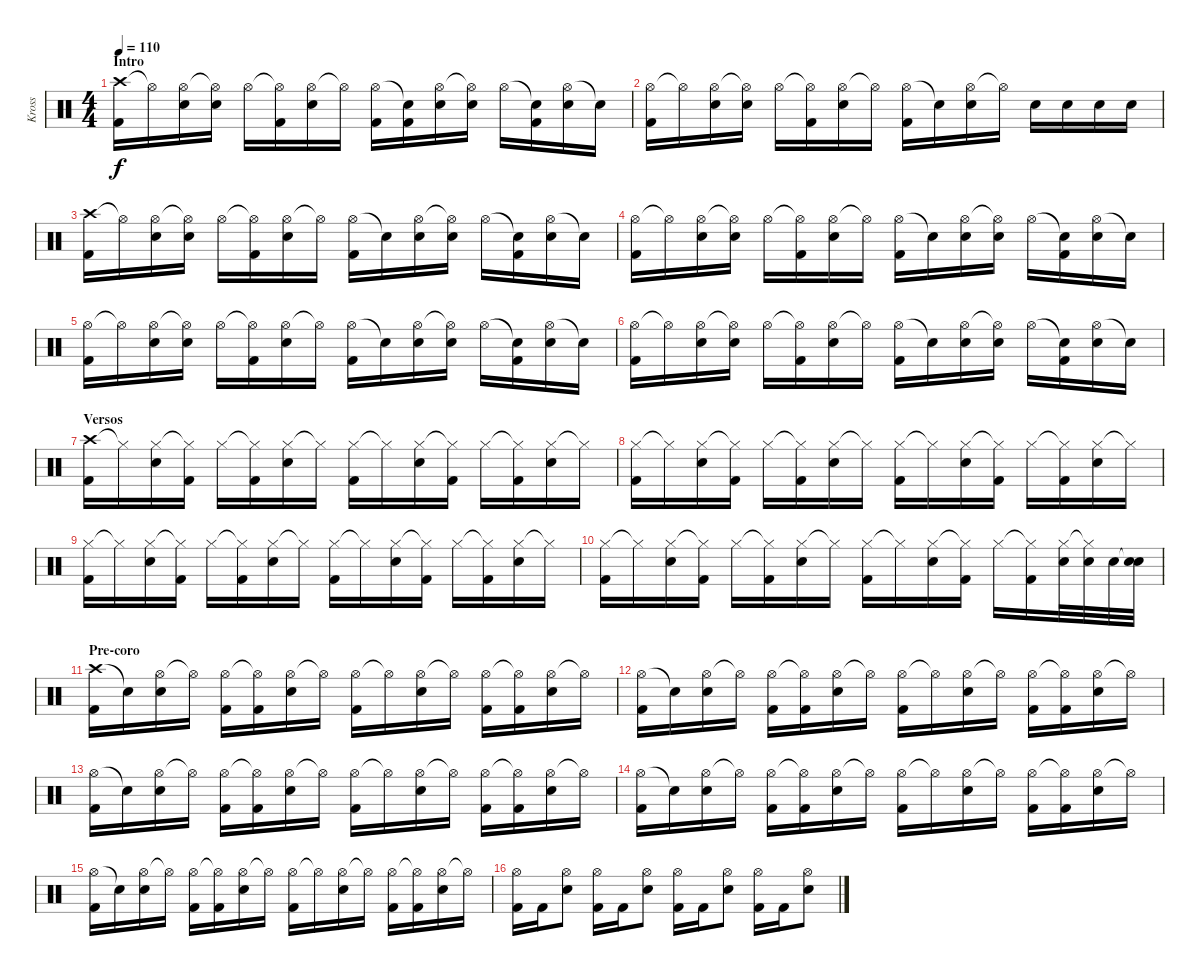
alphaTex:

\track ("Kross" "Kross") {instrument percussion}
\staff {score}
\articulation defaults
\ts (4 4)
\section ("" "Intro")
\tempo 110
\clef neutral
\ks c
("Crash high (hit)" "Kick (hit) 2").16{dy f} "Hi-Hat (open)"{t}.16 ("Hi-Hat (open)" "Snare (hit) 2").16 ("Hi-Hat (open)"{t} "Snare (hit) 2").16 "Hi-Hat (open)".16 ("Hi-Hat (open)"{t} "Kick (hit) 2").16 ("Hi-Hat (open)" "Snare (hit) 2").16 "Hi-Hat (open)"{t}.16 ("Hi-Hat (open)" "Kick (hit) 2").16 ("Snare (hit)"{t} "Kick (hit) 2").16 ("Hi-Hat (open)" "Snare (hit) 2").16 ("Hi-Hat (open)"{t} "Snare (hit) 2").16 "Hi-Hat (open)".16 ("Snare (hit)"{t} "Kick (hit) 2").16 ("Hi-Hat (open)" "Snare (hit) 2").16 "Snare (hit)"{t}.16 |
("Hi-Hat (open)" "Kick (hit) 2").16 "Hi-Hat (open)"{t}.16 ("Hi-Hat (open)" "Snare (hit) 2").16 ("Hi-Hat (open)"{t} "Snare (hit) 2").16 "Hi-Hat (open)".16 ("Hi-Hat (open)"{t} "Kick (hit) 2").16 ("Hi-Hat (open)" "Snare (hit) 2").16 "Hi-Hat (open)"{t}.16 ("Hi-Hat (open)" "Kick (hit) 2").16 "Snare (hit)"{t}.16 ("Hi-Hat (open)" "Snare (hit) 2").16 "Hi-Hat (open)"{t}.16 "Snare (hit) 2".16 "Snare (hit) 2".16 "Snare (hit) 2".16 "Snare (hit) 2".16 |
("Crash high (hit)" "Kick (hit) 2").16 "Hi-Hat (open)"{t}.16 ("Hi-Hat (open)" "Snare (hit) 2").16 ("Hi-Hat (open)"{t} "Snare (hit) 2").16 "Hi-Hat (open)".16 ("Hi-Hat (open)"{t} "Kick (hit) 2").16 ("Hi-Hat (open)" "Snare (hit) 2").16 "Hi-Hat (open)"{t}.16 ("Hi-Hat (open)" "Kick (hit) 2").16 "Snare (hit)"{t}.16 ("Hi-Hat (open)" "Snare (hit) 2").16 ("Hi-Hat (open)"{t} "Snare (hit) 2").16 "Hi-Hat (open)".16 ("Snare (hit)"{t} "Kick (hit) 2").16 ("Hi-Hat (open)" "Snare (hit) 2").16 "Snare (hit)"{t}.16 |
("Hi-Hat (open)" "Kick (hit) 2").16 "Hi-Hat (open)"{t}.16 ("Hi-Hat (open)" "Snare (hit) 2").16 ("Hi-Hat (open)"{t} "Snare (hit) 2").16 "Hi-Hat (open)".16 ("Hi-Hat (open)"{t} "Kick (hit) 2").16 ("Hi-Hat (open)" "Snare (hit) 2").16 "Hi-Hat (open)"{t}.16 ("Hi-Hat (open)" "Kick (hit) 2").16 "Snare (hit)"{t}.16 ("Hi-Hat (open)" "Snare (hit) 2").16 ("Hi-Hat (open)"{t} "Snare (hit) 2").16 "Hi-Hat (open)".16 ("Snare (hit)"{t} "Kick (hit) 2").16 ("Hi-Hat (open)" "Snare (hit) 2").16 "Snare (hit)"{t}.16 |
("Hi-Hat (open)" "Kick (hit) 2").16 "Hi-Hat (open)"{t}.16 ("Hi-Hat (open)" "Snare (hit) 2").16 ("Hi-Hat (open)"{t} "Snare (hit) 2").16 "Hi-Hat (open)".16 ("Hi-Hat (open)"{t} "Kick (hit) 2").16 ("Hi-Hat (open)" "Snare (hit) 2").16 "Hi-Hat (open)"{t}.16 ("Hi-Hat (open)" "Kick (hit) 2").16 "Snare (hit)"{t}.16 ("Hi-Hat (open)" "Snare (hit) 2").16 ("Hi-Hat (open)"{t} "Snare (hit) 2").16 "Hi-Hat (open)".16 ("Snare (hit)"{t} "Kick (hit) 2").16 ("Hi-Hat (open)" "Snare (hit) 2").16 "Snare (hit)"{t}.16 |
("Hi-Hat (open)" "Kick (hit) 2").16 "Hi-Hat (open)"{t}.16 ("Hi-Hat (open)" "Snare (hit) 2").16 ("Hi-Hat (open)"{t} "Snare (hit) 2").16 "Hi-Hat (open)".16 ("Hi-Hat (open)"{t} "Kick (hit) 2").16 ("Hi-Hat (open)" "Snare (hit) 2").16 "Hi-Hat (open)"{t}.16 ("Hi-Hat (open)" "Kick (hit) 2").16 "Snare (hit)"{t}.16 ("Hi-Hat (open)" "Snare (hit) 2").16 ("Hi-Hat (open)"{t} "Snare (hit) 2").16 "Hi-Hat (open)".16 ("Snare (hit)"{t} "Kick (hit) 2").16 ("Hi-Hat (open)" "Snare (hit) 2").16 "Snare (hit)"{t}.16 |
\section ("" "Versos")
("Crash high (hit)" "Kick (hit) 2").16 "Hi-Hat (closed)"{t}.16 ("Hi-Hat (closed)" "Snare (hit) 2").16 ("Hi-Hat (closed)"{t} "Kick (hit) 2").16 "Hi-Hat (closed)".16 ("Hi-Hat (closed)"{t} "Kick (hit) 2").16 ("Hi-Hat (closed)" "Snare (hit) 2").16 "Hi-Hat (closed)"{t}.16 ("Hi-Hat (closed)" "Kick (hit) 2").16 "Hi-Hat (closed)"{t}.16 ("Hi-Hat (closed)" "Snare (hit) 2").16 ("Hi-Hat (closed)"{t} "Kick (hit) 2").16 "Hi-Hat (closed)".16 ("Hi-Hat (closed)"{t} "Kick (hit) 2").16 ("Hi-Hat (closed)" "Snare (hit) 2").16 "Hi-Hat (closed)"{t}.16 |
("Hi-Hat (closed)" "Kick (hit) 2").16 "Hi-Hat (closed)"{t}.16 ("Hi-Hat (closed)" "Snare (hit) 2").16 ("Hi-Hat (closed)"{t} "Kick (hit) 2").16 "Hi-Hat (closed)".16 ("Hi-Hat (closed)"{t} "Kick (hit) 2").16 ("Hi-Hat (closed)" "Snare (hit) 2").16 "Hi-Hat (closed)"{t}.16 ("Hi-Hat (closed)" "Kick (hit) 2").16 "Hi-Hat (closed)"{t}.16 ("Hi-Hat (closed)" "Snare (hit) 2").16 ("Hi-Hat (closed)"{t} "Kick (hit) 2").16 "Hi-Hat (closed)".16 ("Hi-Hat (closed)"{t} "Kick (hit) 2").16 ("Hi-Hat (closed)" "Snare (hit) 2").16 "Hi-Hat (closed)"{t}.16 |
("Hi-Hat (closed)" "Kick (hit) 2").16 "Hi-Hat (closed)"{t}.16 ("Hi-Hat (closed)" "Snare (hit) 2").16 ("Hi-Hat (closed)"{t} "Kick (hit) 2").16 "Hi-Hat (closed)".16 ("Hi-Hat (closed)"{t} "Kick (hit) 2").16 ("Hi-Hat (closed)" "Snare (hit) 2").16 "Hi-Hat (closed)"{t}.16 ("Hi-Hat (closed)" "Kick (hit) 2").16 "Hi-Hat (closed)"{t}.16 ("Hi-Hat (closed)" "Snare (hit) 2").16 ("Hi-Hat (closed)"{t} "Kick (hit) 2").16 "Hi-Hat (closed)".16 ("Hi-Hat (closed)"{t} "Kick (hit) 2").16 ("Hi-Hat (closed)" "Snare (hit) 2").16 "Hi-Hat (closed)"{t}.16 |
("Hi-Hat (closed)" "Kick (hit) 2").16 "Hi-Hat (closed)"{t}.16 ("Hi-Hat (closed)" "Snare (hit) 2").16 ("Hi-Hat (closed)"{t} "Kick (hit) 2").16 "Hi-Hat (closed)".16 ("Hi-Hat (closed)"{t} "Kick (hit) 2").16 ("Hi-Hat (closed)" "Snare (hit) 2").16 "Hi-Hat (closed)"{t}.16 ("Hi-Hat (closed)" "Kick (hit) 2").16 "Hi-Hat (closed)"{t}.16 ("Hi-Hat (closed)" "Snare (hit) 2").16 ("Hi-Hat (closed)"{t} "Kick (hit) 2").16 "Hi-Hat (closed)".16 ("Hi-Hat (closed)"{t} "Kick (hit) 2").16 ("Hi-Hat (closed)" "Snare (hit) 2").32 ("Hi-Hat (closed)"{t} "Snare (hit) 2").32 "Snare (hit) 2".32 ("Snare (hit)"{t} "Snare (hit) 2").32 |
\section ("" "Pre-coro")
("Crash high (hit)" "Kick (hit) 2").16 "Snare (hit)"{t}.16 ("Hi-Hat (open)" "Snare (hit) 2").16 "Hi-Hat (open)"{t}.16 ("Hi-Hat (open)" "Kick (hit) 2").16 ("Hi-Hat (open)"{t} "Kick (hit) 2").16 ("Hi-Hat (open)" "Snare (hit) 2").16 "Hi-Hat (open)"{t}.16 ("Hi-Hat (open)" "Kick (hit) 2").16 "Hi-Hat (open)"{t}.16 ("Hi-Hat (open)" "Snare (hit) 2").16 "Hi-Hat (open)"{t}.16 ("Hi-Hat (open)" "Kick (hit) 2").16 ("Hi-Hat (open)"{t} "Kick (hit) 2").16 ("Hi-Hat (open)" "Snare (hit) 2").16 "Hi-Hat (open)"{t}.16 |
("Hi-Hat (open)" "Kick (hit) 2").16 "Snare (hit)"{t}.16 ("Hi-Hat (open)" "Snare (hit) 2").16 "Hi-Hat (open)"{t}.16 ("Hi-Hat (open)" "Kick (hit) 2").16 ("Hi-Hat (open)"{t} "Kick (hit) 2").16 ("Hi-Hat (open)" "Snare (hit) 2").16 "Hi-Hat (open)"{t}.16 ("Hi-Hat (open)" "Kick (hit) 2").16 "Hi-Hat (open)"{t}.16 ("Hi-Hat (open)" "Snare (hit) 2").16 "Hi-Hat (open)"{t}.16 ("Hi-Hat (open)" "Kick (hit) 2").16 ("Hi-Hat (open)"{t} "Kick (hit) 2").16 ("Hi-Hat (open)" "Snare (hit) 2").16 "Hi-Hat (open)"{t}.16 |
("Hi-Hat (open)" "Kick (hit) 2").16 "Snare (hit)"{t}.16 ("Hi-Hat (open)" "Snare (hit) 2").16 "Hi-Hat (open)"{t}.16 ("Hi-Hat (open)" "Kick (hit) 2").16 ("Hi-Hat (open)"{t} "Kick (hit) 2").16 ("Hi-Hat (open)" "Snare (hit) 2").16 "Hi-Hat (open)"{t}.16 ("Hi-Hat (open)" "Kick (hit) 2").16 "Hi-Hat (open)"{t}.16 ("Hi-Hat (open)" "Snare (hit) 2").16 "Hi-Hat (open)"{t}.16 ("Hi-Hat (open)" "Kick (hit) 2").16 ("Hi-Hat (open)"{t} "Kick (hit) 2").16 ("Hi-Hat (open)" "Snare (hit) 2").16 "Hi-Hat (open)"{t}.16 |
("Hi-Hat (open)" "Kick (hit) 2").16 "Snare (hit)"{t}.16 ("Hi-Hat (open)" "Snare (hit) 2").16 "Hi-Hat (open)"{t}.16 ("Hi-Hat (open)" "Kick (hit) 2").16 ("Hi-Hat (open)"{t} "Kick (hit) 2").16 ("Hi-Hat (open)" "Snare (hit) 2").16 "Hi-Hat (open)"{t}.16 ("Hi-Hat (open)" "Kick (hit) 2").16 "Hi-Hat (open)"{t}.16 ("Hi-Hat (open)" "Snare (hit) 2").16 "Hi-Hat (open)"{t}.16 ("Hi-Hat (open)" "Kick (hit) 2").16 ("Hi-Hat (open)"{t} "Kick (hit) 2").16 ("Hi-Hat (open)" "Snare (hit) 2").16 "Hi-Hat (open)"{t}.16 |
("Hi-Hat (open)" "Kick (hit) 2").16 "Snare (hit)"{t}.16 ("Hi-Hat (open)" "Snare (hit) 2").16 "Hi-Hat (open)"{t}.16 ("Hi-Hat (open)" "Kick (hit) 2").16 ("Hi-Hat (open)"{t} "Kick (hit) 2").16 ("Hi-Hat (open)" "Snare (hit) 2").16 "Hi-Hat (open)"{t}.16 ("Hi-Hat (open)" "Kick (hit) 2").16 "Hi-Hat (open)"{t}.16 ("Hi-Hat (open)" "Snare (hit) 2").16 "Hi-Hat (open)"{t}.16 ("Hi-Hat (open)" "Kick (hit) 2").16 ("Hi-Hat (open)"{t} "Kick (hit) 2").16 ("Hi-Hat (open)" "Snare (hit) 2").16 "Hi-Hat (open)"{t}.16 |
("Hi-Hat (open)" "Kick (hit) 2").16 "Kick (hit) 2".16 ("Hi-Hat (open)" "Snare (hit) 2").8 ("Hi-Hat (open)" "Kick (hit) 2").16 "Kick (hit) 2".16 ("Hi-Hat (open)" "Snare (hit) 2").8 ("Hi-Hat (open)" "Kick (hit) 2").16 "Kick (hit) 2".16 ("Hi-Hat (open)" "Snare (hit) 2").8 ("Hi-Hat (open)" "Kick (hit) 2").16 "Kick (hit) 2".16 ("Hi-Hat (open)" "Snare (hit) 2").8
